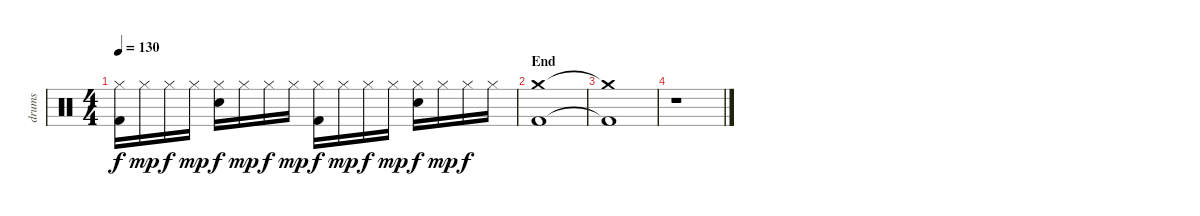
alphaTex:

\track ("drums" "drums") {instrument percussion}
\staff {score}
\articulation defaults
\ts (4 4)
\tempo 130
\clef neutral
\ks c
("Hi-Hat (closed)" "Kick (hit) 2").16{dy f} "Hi-Hat (closed)".16{dy mp} "Hi-Hat (closed)".16{dy f} "Hi-Hat (closed)".16{dy mp} ("Hi-Hat (closed)" "Electric Snare (hit)").16{dy f} "Hi-Hat (closed)".16{dy mp} "Hi-Hat (closed)".16{dy f} "Hi-Hat (closed)".16{dy mp} ("Hi-Hat (closed)" "Kick (hit) 2").16{dy f} "Hi-Hat (closed)".16{dy mp} "Hi-Hat (closed)".16{dy f} "Hi-Hat (closed)".16{dy mp} ("Hi-Hat (closed)" "Electric Snare (hit)").16{dy f} "Hi-Hat (closed)".16{dy mp} "Hi-Hat (closed)".16{dy f} "Hi-Hat (closed)".16 |
\section ("" "End")
("Crash medium (hit)" "Kick (hit) 2").1 |
("Crash medium (hit)"{t} "Kick (hit) 2"{t}).1 |
r.1
